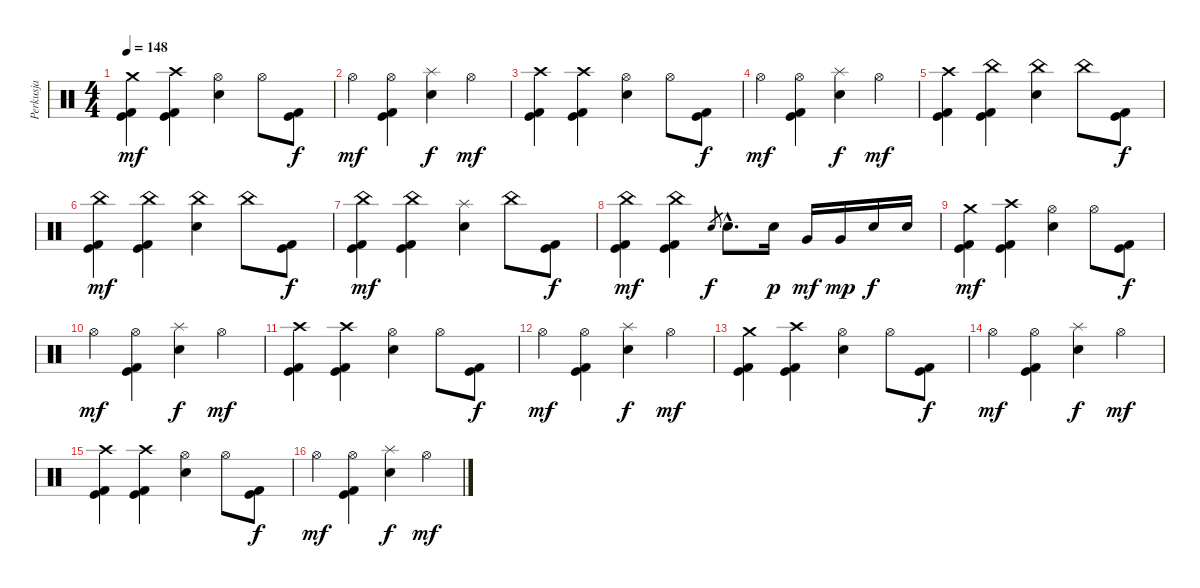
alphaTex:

\track ("Perkusja" "Perkusja") {instrument percussion}
\staff {score}
\articulation defaults
\ts (4 4)
\tempo 148
\clef neutral
\ks c
("Kick (hit) 2" "Kick (hit)" "Crash medium (hit)").4{dy mf} ("Kick (hit) 2" "Kick (hit)" "Crash high (hit)").4 ("Snare (hit) 2" "Hi-Hat (open)").4 "Hi-Hat (open)".8 ("Kick (hit) 2" "Kick (hit)").8{dy f} |
"Hi-Hat (open)".4{dy mf} ("Kick (hit)" "Kick (hit) 2" "Hi-Hat (open)").4 ("Snare (hit) 2" "Splash (hit)").4{dy f} "Hi-Hat (open)".4{dy mf} |
("Kick (hit) 2" "Kick (hit)" "Crash high (hit)").4 ("Kick (hit) 2" "Kick (hit)" "Crash high (hit)").4 ("Snare (hit) 2" "Hi-Hat (open)").4 "Hi-Hat (open)".8 ("Kick (hit) 2" "Kick (hit)").8{dy f} |
"Hi-Hat (open)".4{dy mf} ("Kick (hit)" "Kick (hit) 2" "Hi-Hat (open)").4 ("Snare (hit) 2" "Splash (hit)").4{dy f} "Hi-Hat (open)".4{dy mf} |
("Kick (hit) 2" "Kick (hit)" "Crash high (hit)").4 ("Kick (hit) 2" "Kick (hit)" "China (hit)").4 ("Snare (hit) 2" "China (hit)").4 "China (hit)".8 ("Kick (hit) 2" "Kick (hit)").8{dy f} |
("Kick (hit) 2" "Kick (hit)" "China (hit)").4{dy mf} ("Kick (hit) 2" "Kick (hit)" "China (hit)").4 ("Snare (hit) 2" "China (hit)").4 "China (hit)".8 ("Kick (hit) 2" "Kick (hit)").8{dy f} |
("Kick (hit) 2" "Kick (hit)" "China (hit)").4{dy mf} ("Kick (hit) 2" "Kick (hit)" "China (hit)").4 ("Snare (hit) 2" "Splash (hit)").4 "China (hit)".8 ("Kick (hit) 2" "Kick (hit)").8{dy f} |
("Kick (hit) 2" "Kick (hit)" "China (hit)").4{dy mf} ("Kick (hit) 2" "Kick (hit)" "China (hit)").4 "Snare (hit) 2".8{gr dy f} "Snare (hit) 2"{hac}.8{d} "Snare (hit) 2".16{dy p} "Very Low Tom (hit)".16{dy mf} "Very Low Tom (hit)".16{dy mp} "Snare (hit) 2".16{dy f} "Snare (hit) 2".16 |
("Kick (hit) 2" "Kick (hit)" "Crash medium (hit)").4{dy mf} ("Kick (hit) 2" "Kick (hit)" "Crash high (hit)").4 ("Snare (hit) 2" "Hi-Hat (open)").4 "Hi-Hat (open)".8 ("Kick (hit) 2" "Kick (hit)").8{dy f} |
"Hi-Hat (open)".4{dy mf} ("Kick (hit)" "Kick (hit) 2" "Hi-Hat (open)").4 ("Snare (hit) 2" "Splash (hit)").4{dy f} "Hi-Hat (open)".4{dy mf} |
("Kick (hit) 2" "Kick (hit)" "Crash high (hit)").4 ("Kick (hit) 2" "Kick (hit)" "Crash high (hit)").4 ("Snare (hit) 2" "Hi-Hat (open)").4 "Hi-Hat (open)".8 ("Kick (hit) 2" "Kick (hit)").8{dy f} |
"Hi-Hat (open)".4{dy mf} ("Kick (hit)" "Kick (hit) 2" "Hi-Hat (open)").4 ("Snare (hit) 2" "Splash (hit)").4{dy f} "Hi-Hat (open)".4{dy mf} |
("Kick (hit) 2" "Kick (hit)" "Crash medium (hit)").4 ("Kick (hit) 2" "Kick (hit)" "Crash high (hit)").4 ("Snare (hit) 2" "Hi-Hat (open)").4 "Hi-Hat (open)".8 ("Kick (hit) 2" "Kick (hit)").8{dy f} |
"Hi-Hat (open)".4{dy mf} ("Kick (hit)" "Kick (hit) 2" "Hi-Hat (open)").4 ("Snare (hit) 2" "Splash (hit)").4{dy f} "Hi-Hat (open)".4{dy mf} |
("Kick (hit) 2" "Kick (hit)" "Crash high (hit)").4 ("Kick (hit) 2" "Kick (hit)" "Crash high (hit)").4 ("Snare (hit) 2" "Hi-Hat (open)").4 "Hi-Hat (open)".8 ("Kick (hit) 2" "Kick (hit)").8{dy f} |
"Hi-Hat (open)".4{dy mf} ("Kick (hit)" "Kick (hit) 2" "Hi-Hat (open)").4 ("Snare (hit) 2" "Splash (hit)").4{dy f} "Hi-Hat (open)".4{dy mf}
